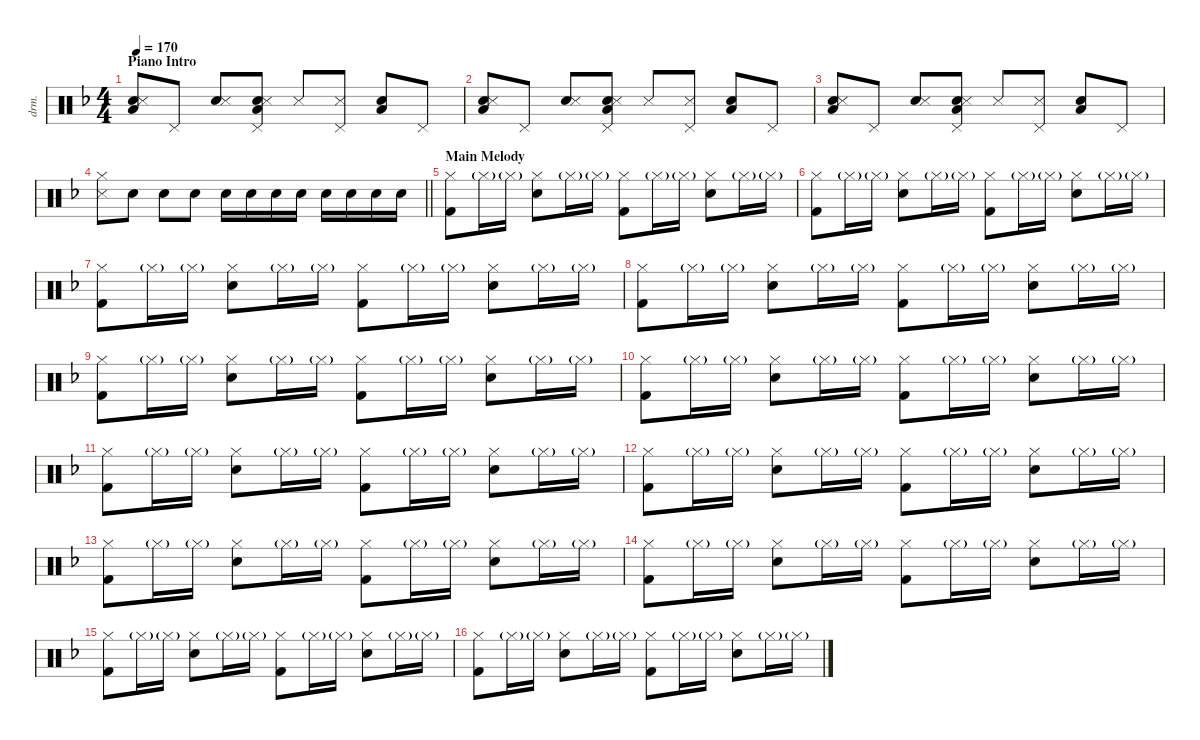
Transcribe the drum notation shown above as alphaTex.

\defaultSystemsLayout 4
\hideDynamics
\bracketExtendMode nobrackets
\otherSystemsTrackNameOrientation horizontal
\track ("Drums" "drm.") {instrument percussion}
\staff {score}
\articulation defaults
\ts (4 4)
\beaming (8 2 2 2 2)
\section ("" "Piano Intro")
\tempo 170
\clef neutral
\ks dminor
("Low Floor Tom (hit)"{acc forcenatural} "Hand Clap (hit)"{acc forcenatural} "Snare (side stick) 3"{acc forcenatural}).8{dy f beam Up} "Pedal Hi-Hat (hit)"{acc forcenatural}.8{beam Up} ("Hand Clap (hit)"{acc forcenatural} "Snare (side stick) 3"{acc forcenatural}).8{beam Up} ("Pedal Hi-Hat (hit)"{acc forcenatural} "Low Floor Tom (hit)"{acc forcenatural} "Hand Clap (hit)"{acc forcenatural} "Snare (side stick) 3"{acc forcenatural}).8{beam Up} "Snare (side stick) 3"{acc forcenatural}.8{beam Up} ("Pedal Hi-Hat (hit)"{acc forcenatural} "Snare (side stick) 3"{acc forcenatural}).8{beam Up} ("Low Floor Tom (hit)"{acc forcenatural} "Hand Clap (hit)"{acc forcenatural}).8{beam Up} "Pedal Hi-Hat (hit)"{acc forcenatural}.8{beam Up} |
("Low Floor Tom (hit)"{acc forcenatural} "Hand Clap (hit)"{acc forcenatural} "Snare (side stick) 3"{acc forcenatural}).8{beam Up} "Pedal Hi-Hat (hit)"{acc forcenatural}.8{beam Up} ("Hand Clap (hit)"{acc forcenatural} "Snare (side stick) 3"{acc forcenatural}).8{beam Up} ("Pedal Hi-Hat (hit)"{acc forcenatural} "Low Floor Tom (hit)"{acc forcenatural} "Hand Clap (hit)"{acc forcenatural} "Snare (side stick) 3"{acc forcenatural}).8{beam Up} "Snare (side stick) 3"{acc forcenatural}.8{beam Up} ("Pedal Hi-Hat (hit)"{acc forcenatural} "Snare (side stick) 3"{acc forcenatural}).8{beam Up} ("Low Floor Tom (hit)"{acc forcenatural} "Hand Clap (hit)"{acc forcenatural}).8{beam Up} "Pedal Hi-Hat (hit)"{acc forcenatural}.8{beam Up} |
("Low Floor Tom (hit)"{acc forcenatural} "Hand Clap (hit)"{acc forcenatural} "Snare (side stick) 3"{acc forcenatural}).8{beam Up} "Pedal Hi-Hat (hit)"{acc forcenatural}.8{beam Up} ("Hand Clap (hit)"{acc forcenatural} "Snare (side stick) 3"{acc forcenatural}).8{beam Up} ("Pedal Hi-Hat (hit)"{acc forcenatural} "Low Floor Tom (hit)"{acc forcenatural} "Hand Clap (hit)"{acc forcenatural} "Snare (side stick) 3"{acc forcenatural}).8{beam Up} "Snare (side stick) 3"{acc forcenatural}.8{beam Up} ("Pedal Hi-Hat (hit)"{acc forcenatural} "Snare (side stick) 3"{acc forcenatural}).8{beam Up} ("Low Floor Tom (hit)"{acc forcenatural} "Hand Clap (hit)"{acc forcenatural}).8{beam Up} "Pedal Hi-Hat (hit)"{acc forcenatural}.8{beam Up} |
\barLineRight lightlight
("Hi-Hat (closed)"{acc forcenatural} "Snare (side stick) 3"{acc forcenatural}).8{beam Down} "Snare (hit) 2"{acc forcenatural}.8{beam Down} "Snare (hit) 2"{acc forcenatural}.8{beam Down} "Snare (hit) 2"{acc forcenatural}.8{beam Down} "Snare (hit) 2"{acc forcenatural}.16{beam Down} "Snare (hit) 2"{acc forcenatural}.16{beam Down} "Snare (hit) 2"{acc forcenatural}.16{beam Down} "Snare (hit) 2"{acc forcenatural}.16{beam Down} "Snare (hit) 2"{acc forcenatural}.16{beam Down} "Snare (hit) 2"{acc forcenatural}.16{beam Down} "Snare (hit) 2"{acc forcenatural}.16{beam Down} "Snare (hit) 2"{acc forcenatural}.16{beam Down} |
\section ("" "Main Melody")
("Hi-Hat (closed)"{acc forcenatural} "Kick (hit) 2"{acc forcenatural}).8{beam Down} "Hi-Hat (closed)"{g acc forcenatural}.16{dy mf beam Down} "Hi-Hat (closed)"{g acc forcenatural}.16{beam Down} ("Hi-Hat (closed)"{acc forcenatural} "Snare (hit) 2"{acc forcenatural}).8{dy mp beam Down} "Hi-Hat (closed)"{g acc forcenatural}.16{dy mf beam Down} "Hi-Hat (closed)"{g acc forcenatural}.16{beam Down} ("Hi-Hat (closed)"{acc forcenatural} "Kick (hit) 2"{acc forcenatural}).8{dy f beam Down} "Hi-Hat (closed)"{g acc forcenatural}.16{dy mf beam Down} "Hi-Hat (closed)"{g acc forcenatural}.16{beam Down} ("Hi-Hat (closed)"{acc forcenatural} "Snare (hit) 2"{acc forcenatural}).8{dy mp beam Down} "Hi-Hat (closed)"{g acc forcenatural}.16{dy mf beam Down} "Hi-Hat (closed)"{g acc forcenatural}.16{beam Down} |
("Hi-Hat (closed)"{acc forcenatural} "Kick (hit) 2"{acc forcenatural}).8{dy f beam Down} "Hi-Hat (closed)"{g acc forcenatural}.16{dy mf beam Down} "Hi-Hat (closed)"{g acc forcenatural}.16{beam Down} ("Hi-Hat (closed)"{acc forcenatural} "Snare (hit) 2"{acc forcenatural}).8{dy mp beam Down} "Hi-Hat (closed)"{g acc forcenatural}.16{dy mf beam Down} "Hi-Hat (closed)"{g acc forcenatural}.16{beam Down} ("Hi-Hat (closed)"{acc forcenatural} "Kick (hit) 2"{acc forcenatural}).8{dy f beam Down} "Hi-Hat (closed)"{g acc forcenatural}.16{dy mf beam Down} "Hi-Hat (closed)"{g acc forcenatural}.16{beam Down} ("Hi-Hat (closed)"{acc forcenatural} "Snare (hit) 2"{acc forcenatural}).8{dy mp beam Down} "Hi-Hat (closed)"{g acc forcenatural}.16{dy mf beam Down} "Hi-Hat (closed)"{g acc forcenatural}.16{beam Down} |
("Hi-Hat (closed)"{acc forcenatural} "Kick (hit) 2"{acc forcenatural}).8{dy f beam Down} "Hi-Hat (closed)"{g acc forcenatural}.16{dy mf beam Down} "Hi-Hat (closed)"{g acc forcenatural}.16{beam Down} ("Hi-Hat (closed)"{acc forcenatural} "Snare (hit) 2"{acc forcenatural}).8{dy mp beam Down} "Hi-Hat (closed)"{g acc forcenatural}.16{dy mf beam Down} "Hi-Hat (closed)"{g acc forcenatural}.16{beam Down} ("Hi-Hat (closed)"{acc forcenatural} "Kick (hit) 2"{acc forcenatural}).8{dy f beam Down} "Hi-Hat (closed)"{g acc forcenatural}.16{dy mf beam Down} "Hi-Hat (closed)"{g acc forcenatural}.16{beam Down} ("Hi-Hat (closed)"{acc forcenatural} "Snare (hit) 2"{acc forcenatural}).8{dy mp beam Down} "Hi-Hat (closed)"{g acc forcenatural}.16{dy mf beam Down} "Hi-Hat (closed)"{g acc forcenatural}.16{beam Down} |
("Hi-Hat (closed)"{acc forcenatural} "Kick (hit) 2"{acc forcenatural}).8{dy f beam Down} "Hi-Hat (closed)"{g acc forcenatural}.16{dy mf beam Down} "Hi-Hat (closed)"{g acc forcenatural}.16{beam Down} ("Hi-Hat (closed)"{acc forcenatural} "Snare (hit) 2"{acc forcenatural}).8{dy mp beam Down} "Hi-Hat (closed)"{g acc forcenatural}.16{dy mf beam Down} "Hi-Hat (closed)"{g acc forcenatural}.16{beam Down} ("Hi-Hat (closed)"{acc forcenatural} "Kick (hit) 2"{acc forcenatural}).8{dy f beam Down} "Hi-Hat (closed)"{g acc forcenatural}.16{dy mf beam Down} "Hi-Hat (closed)"{g acc forcenatural}.16{beam Down} ("Hi-Hat (closed)"{acc forcenatural} "Snare (hit) 2"{acc forcenatural}).8{dy mp beam Down} "Hi-Hat (closed)"{g acc forcenatural}.16{dy mf beam Down} "Hi-Hat (closed)"{g acc forcenatural}.16{beam Down} |
("Hi-Hat (closed)"{acc forcenatural} "Kick (hit) 2"{acc forcenatural}).8{dy f beam Down} "Hi-Hat (closed)"{g acc forcenatural}.16{dy mf beam Down} "Hi-Hat (closed)"{g acc forcenatural}.16{beam Down} ("Hi-Hat (closed)"{acc forcenatural} "Snare (hit) 2"{acc forcenatural}).8{dy mp beam Down} "Hi-Hat (closed)"{g acc forcenatural}.16{dy mf beam Down} "Hi-Hat (closed)"{g acc forcenatural}.16{beam Down} ("Hi-Hat (closed)"{acc forcenatural} "Kick (hit) 2"{acc forcenatural}).8{dy f beam Down} "Hi-Hat (closed)"{g acc forcenatural}.16{dy mf beam Down} "Hi-Hat (closed)"{g acc forcenatural}.16{beam Down} ("Hi-Hat (closed)"{acc forcenatural} "Snare (hit) 2"{acc forcenatural}).8{dy mp beam Down} "Hi-Hat (closed)"{g acc forcenatural}.16{dy mf beam Down} "Hi-Hat (closed)"{g acc forcenatural}.16{beam Down} |
("Hi-Hat (closed)"{acc forcenatural} "Kick (hit) 2"{acc forcenatural}).8{dy f beam Down} "Hi-Hat (closed)"{g acc forcenatural}.16{dy mf beam Down} "Hi-Hat (closed)"{g acc forcenatural}.16{beam Down} ("Hi-Hat (closed)"{acc forcenatural} "Snare (hit) 2"{acc forcenatural}).8{dy mp beam Down} "Hi-Hat (closed)"{g acc forcenatural}.16{dy mf beam Down} "Hi-Hat (closed)"{g acc forcenatural}.16{beam Down} ("Hi-Hat (closed)"{acc forcenatural} "Kick (hit) 2"{acc forcenatural}).8{dy f beam Down} "Hi-Hat (closed)"{g acc forcenatural}.16{dy mf beam Down} "Hi-Hat (closed)"{g acc forcenatural}.16{beam Down} ("Hi-Hat (closed)"{acc forcenatural} "Snare (hit) 2"{acc forcenatural}).8{dy mp beam Down} "Hi-Hat (closed)"{g acc forcenatural}.16{dy mf beam Down} "Hi-Hat (closed)"{g acc forcenatural}.16{beam Down} |
("Hi-Hat (closed)"{acc forcenatural} "Kick (hit) 2"{acc forcenatural}).8{dy f beam Down} "Hi-Hat (closed)"{g acc forcenatural}.16{dy mf beam Down} "Hi-Hat (closed)"{g acc forcenatural}.16{beam Down} ("Hi-Hat (closed)"{acc forcenatural} "Snare (hit) 2"{acc forcenatural}).8{dy mp beam Down} "Hi-Hat (closed)"{g acc forcenatural}.16{dy mf beam Down} "Hi-Hat (closed)"{g acc forcenatural}.16{beam Down} ("Hi-Hat (closed)"{acc forcenatural} "Kick (hit) 2"{acc forcenatural}).8{dy f beam Down} "Hi-Hat (closed)"{g acc forcenatural}.16{dy mf beam Down} "Hi-Hat (closed)"{g acc forcenatural}.16{beam Down} ("Hi-Hat (closed)"{acc forcenatural} "Snare (hit) 2"{acc forcenatural}).8{dy mp beam Down} "Hi-Hat (closed)"{g acc forcenatural}.16{dy mf beam Down} "Hi-Hat (closed)"{g acc forcenatural}.16{beam Down} |
("Hi-Hat (closed)"{acc forcenatural} "Kick (hit) 2"{acc forcenatural}).8{dy f beam Down} "Hi-Hat (closed)"{g acc forcenatural}.16{dy mf beam Down} "Hi-Hat (closed)"{g acc forcenatural}.16{beam Down} ("Hi-Hat (closed)"{acc forcenatural} "Snare (hit) 2"{acc forcenatural}).8{dy mp beam Down} "Hi-Hat (closed)"{g acc forcenatural}.16{dy mf beam Down} "Hi-Hat (closed)"{g acc forcenatural}.16{beam Down} ("Hi-Hat (closed)"{acc forcenatural} "Kick (hit) 2"{acc forcenatural}).8{dy f beam Down} "Hi-Hat (closed)"{g acc forcenatural}.16{dy mf beam Down} "Hi-Hat (closed)"{g acc forcenatural}.16{beam Down} ("Hi-Hat (closed)"{acc forcenatural} "Snare (hit) 2"{acc forcenatural}).8{dy mp beam Down} "Hi-Hat (closed)"{g acc forcenatural}.16{dy mf beam Down} "Hi-Hat (closed)"{g acc forcenatural}.16{beam Down} |
("Hi-Hat (closed)"{acc forcenatural} "Kick (hit) 2"{acc forcenatural}).8{dy f beam Down} "Hi-Hat (closed)"{g acc forcenatural}.16{dy mf beam Down} "Hi-Hat (closed)"{g acc forcenatural}.16{beam Down} ("Hi-Hat (closed)"{acc forcenatural} "Snare (hit) 2"{acc forcenatural}).8{dy mp beam Down} "Hi-Hat (closed)"{g acc forcenatural}.16{dy mf beam Down} "Hi-Hat (closed)"{g acc forcenatural}.16{beam Down} ("Hi-Hat (closed)"{acc forcenatural} "Kick (hit) 2"{acc forcenatural}).8{dy f beam Down} "Hi-Hat (closed)"{g acc forcenatural}.16{dy mf beam Down} "Hi-Hat (closed)"{g acc forcenatural}.16{beam Down} ("Hi-Hat (closed)"{acc forcenatural} "Snare (hit) 2"{acc forcenatural}).8{dy mp beam Down} "Hi-Hat (closed)"{g acc forcenatural}.16{dy mf beam Down} "Hi-Hat (closed)"{g acc forcenatural}.16{beam Down} |
("Hi-Hat (closed)"{acc forcenatural} "Kick (hit) 2"{acc forcenatural}).8{dy f beam Down} "Hi-Hat (closed)"{g acc forcenatural}.16{dy mf beam Down} "Hi-Hat (closed)"{g acc forcenatural}.16{beam Down} ("Hi-Hat (closed)"{acc forcenatural} "Snare (hit) 2"{acc forcenatural}).8{dy mp beam Down} "Hi-Hat (closed)"{g acc forcenatural}.16{dy mf beam Down} "Hi-Hat (closed)"{g acc forcenatural}.16{beam Down} ("Hi-Hat (closed)"{acc forcenatural} "Kick (hit) 2"{acc forcenatural}).8{dy f beam Down} "Hi-Hat (closed)"{g acc forcenatural}.16{dy mf beam Down} "Hi-Hat (closed)"{g acc forcenatural}.16{beam Down} ("Hi-Hat (closed)"{acc forcenatural} "Snare (hit) 2"{acc forcenatural}).8{dy mp beam Down} "Hi-Hat (closed)"{g acc forcenatural}.16{dy mf beam Down} "Hi-Hat (closed)"{g acc forcenatural}.16{beam Down} |
("Hi-Hat (closed)"{acc forcenatural} "Kick (hit) 2"{acc forcenatural}).8{dy f beam Down} "Hi-Hat (closed)"{g acc forcenatural}.16{dy mf beam Down} "Hi-Hat (closed)"{g acc forcenatural}.16{beam Down} ("Hi-Hat (closed)"{acc forcenatural} "Snare (hit) 2"{acc forcenatural}).8{dy mp beam Down} "Hi-Hat (closed)"{g acc forcenatural}.16{dy mf beam Down} "Hi-Hat (closed)"{g acc forcenatural}.16{beam Down} ("Hi-Hat (closed)"{acc forcenatural} "Kick (hit) 2"{acc forcenatural}).8{dy f beam Down} "Hi-Hat (closed)"{g acc forcenatural}.16{dy mf beam Down} "Hi-Hat (closed)"{g acc forcenatural}.16{beam Down} ("Hi-Hat (closed)"{acc forcenatural} "Snare (hit) 2"{acc forcenatural}).8{dy mp beam Down} "Hi-Hat (closed)"{g acc forcenatural}.16{dy mf beam Down} "Hi-Hat (closed)"{g acc forcenatural}.16{beam Down} |
("Hi-Hat (closed)"{acc forcenatural} "Kick (hit) 2"{acc forcenatural}).8{dy f beam Down} "Hi-Hat (closed)"{g acc forcenatural}.16{dy mf beam Down} "Hi-Hat (closed)"{g acc forcenatural}.16{beam Down} ("Hi-Hat (closed)"{acc forcenatural} "Snare (hit) 2"{acc forcenatural}).8{dy mp beam Down} "Hi-Hat (closed)"{g acc forcenatural}.16{dy mf beam Down} "Hi-Hat (closed)"{g acc forcenatural}.16{beam Down} ("Hi-Hat (closed)"{acc forcenatural} "Kick (hit) 2"{acc forcenatural}).8{dy f beam Down} "Hi-Hat (closed)"{g acc forcenatural}.16{dy mf beam Down} "Hi-Hat (closed)"{g acc forcenatural}.16{beam Down} ("Hi-Hat (closed)"{acc forcenatural} "Snare (hit) 2"{acc forcenatural}).8{dy mp beam Down} "Hi-Hat (closed)"{g acc forcenatural}.16{dy mf beam Down} "Hi-Hat (closed)"{g acc forcenatural}.16{beam Down}
